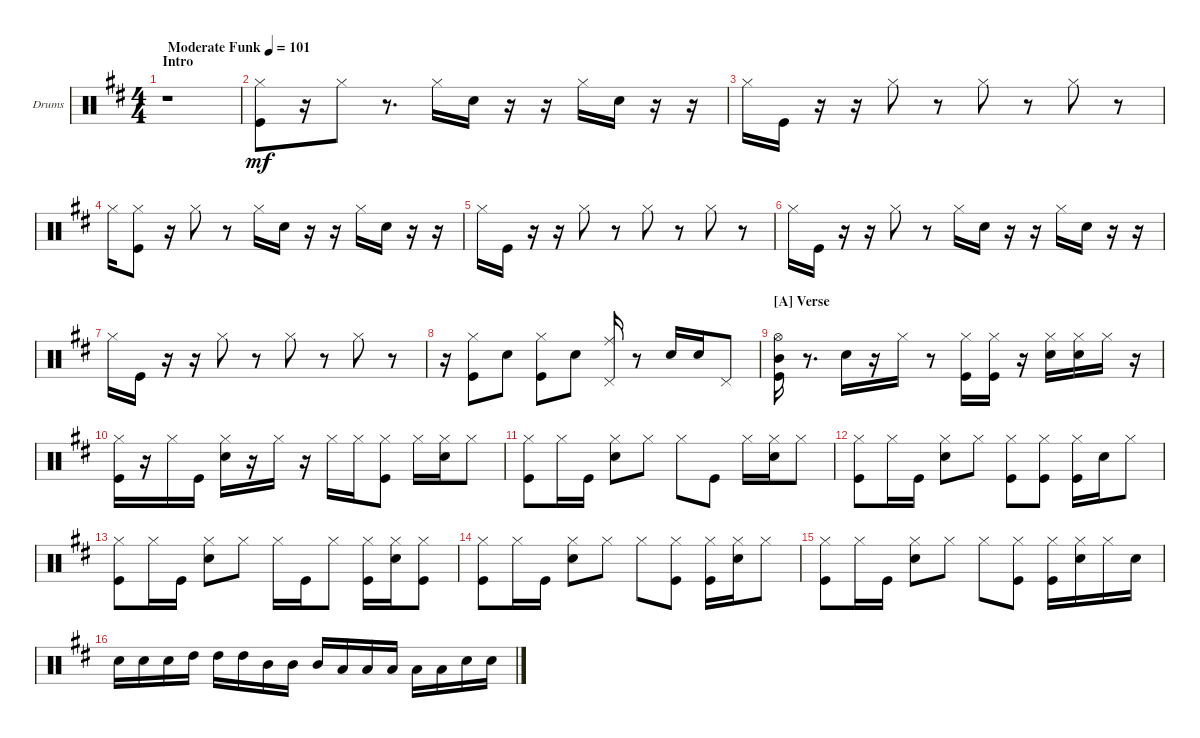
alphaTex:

\bracketExtendMode groupsimilarinstruments
\firstSystemTrackNameOrientation horizontal
\otherSystemsTrackNameOrientation horizontal
\track ("Drumkit" "Drums") {instrument percussion}
\staff {score}
\articulation defaults
\ts (4 4)
\beaming (8 2 2 2 2)
\section ("" "Intro")
\tempo (101 "Moderate Funk")
\clef neutral
\scale
0.514894
\ks d
r.1{dy mf} |
\scale
0.242553 ("Kick (hit)" "Hi-Hat (closed)").8 r.16 "Hi-Hat (closed)".8 r.8{d} "Hi-Hat (closed)".16 "Snare (hit) 2".16 r.16 r.16 "Hi-Hat (closed)".16 "Snare (hit) 2".16 r.16 r.16 |
\scale
0.242553 "Hi-Hat (closed)".16 "Kick (hit)".16 r.16 r.16 "Hi-Hat (closed)".8 r.8 "Hi-Hat (closed)".8 r.8 "Hi-Hat (closed)".8 r.8 |
\scale
0.333333 "Hi-Hat (closed)".16 ("Kick (hit)" "Hi-Hat (closed)").8 r.16 "Hi-Hat (closed)".8 r.8 "Hi-Hat (closed)".16 "Snare (hit) 2".16 r.16 r.16 "Hi-Hat (closed)".16 "Snare (hit) 2".16 r.16 r.16 |
\scale
0.333333 "Hi-Hat (closed)".16 "Kick (hit)".16 r.16 r.16 "Hi-Hat (closed)".8 r.8 "Hi-Hat (closed)".8 r.8 "Hi-Hat (closed)".8 r.8 |
\scale
0.333333 "Hi-Hat (closed)".16 "Kick (hit)".16 r.16 r.16 "Hi-Hat (closed)".8 r.8 "Hi-Hat (closed)".16 "Snare (hit) 2".16 r.16 r.16 "Hi-Hat (closed)".16 "Snare (hit) 2".16 r.16 r.16 |
\scale
0.333333 "Hi-Hat (closed)".16 "Kick (hit)".16 r.16 r.16 "Hi-Hat (closed)".8 r.8 "Hi-Hat (closed)".8 r.8 "Hi-Hat (closed)".8 r.8 |
\scale
0.333333 r.16 ("Kick (hit)" "Hi-Hat (closed)").8 "Snare (hit) 2".8 ("Kick (hit)" "Hi-Hat (closed)").8 "Snare (hit) 2".8 ("Ride (middle)" "Pedal Hi-Hat (hit)").16 r.8 "Snare (hit) 2".16 "Snare (hit) 2".16 "Pedal Hi-Hat (hit)".8 |
\section ("A" "Verse")
\scale
0.333333 ("Kick (hit)" "Mid Tom (hit)" "Hi-Hat (open)").16 r.8{d} "Snare (hit) 2".16 r.16 "Hi-Hat (closed)".16 r.8 ("Kick (hit)" "Hi-Hat (closed)").16 ("Kick (hit)" "Hi-Hat (closed)").16 r.16 ("Snare (hit) 2" "Hi-Hat (closed)").16 ("Snare (hit) 2" "Hi-Hat (closed)").16 "Hi-Hat (closed)".16 r.16 |
\scale
0.333333 ("Kick (hit)" "Hi-Hat (closed)").16 r.16 "Hi-Hat (closed)".16 "Kick (hit)".16 ("Snare (hit) 2" "Hi-Hat (closed)").16 r.16 "Hi-Hat (closed)".16 r.16 "Hi-Hat (closed)".16 "Hi-Hat (closed)".16 ("Kick (hit)" "Hi-Hat (closed)").8 "Hi-Hat (closed)".16 ("Snare (hit) 2" "Hi-Hat (closed)").16 "Hi-Hat (closed)".8 |
\scale
0.333333 ("Kick (hit)" "Hi-Hat (closed)").8 "Hi-Hat (closed)".16 "Kick (hit)".16 ("Snare (hit) 2" "Hi-Hat (closed)").8 "Hi-Hat (closed)".8 "Hi-Hat (closed)".8 "Kick (hit)".8 "Hi-Hat (closed)".16 ("Snare (hit) 2" "Hi-Hat (closed)").16 "Hi-Hat (closed)".8 |
\scale
0.333333 ("Kick (hit)" "Hi-Hat (closed)").8 "Hi-Hat (closed)".16 "Kick (hit)".16 ("Snare (hit) 2" "Hi-Hat (closed)").8 "Hi-Hat (closed)".8 ("Kick (hit)" "Hi-Hat (closed)").8 ("Kick (hit)" "Hi-Hat (closed)").8 ("Kick (hit)" "Hi-Hat (closed)").16 "Snare (hit) 2".16 "Hi-Hat (closed)".8 |
\scale
0.333333 ("Kick (hit)" "Hi-Hat (closed)").8 "Hi-Hat (closed)".16 "Kick (hit)".16 ("Snare (hit) 2" "Hi-Hat (closed)").8 "Hi-Hat (closed)".8 "Hi-Hat (closed)".16 "Kick (hit)".16 "Hi-Hat (closed)".8 ("Kick (hit)" "Hi-Hat (closed)").16 ("Snare (hit) 2" "Hi-Hat (closed)").16 ("Kick (hit)" "Hi-Hat (closed)").8 |
\scale
0.333333 ("Kick (hit)" "Hi-Hat (closed)").8 "Hi-Hat (closed)".16 "Kick (hit)".16 ("Snare (hit) 2" "Hi-Hat (closed)").8 "Hi-Hat (closed)".8 "Hi-Hat (closed)".8 ("Kick (hit)" "Hi-Hat (closed)").8 ("Kick (hit)" "Hi-Hat (closed)").16 ("Snare (hit) 2" "Hi-Hat (closed)").16 "Hi-Hat (closed)".8 |
\scale
0.333333 ("Kick (hit)" "Hi-Hat (closed)").8 "Hi-Hat (closed)".16 "Kick (hit)".16 ("Snare (hit) 2" "Hi-Hat (closed)").8 "Hi-Hat (closed)".8 "Hi-Hat (closed)".8 ("Kick (hit)" "Hi-Hat (closed)").8 ("Kick (hit)" "Hi-Hat (closed)").16 ("Snare (hit) 2" "Hi-Hat (closed)").16 "Hi-Hat (closed)".16 "Snare (hit) 2".16 |
\scale
0.333333 "Snare (hit) 2".16 "Snare (hit) 2".16 "Snare (hit) 2".16 "High Tom (hit)".16 "High Tom (hit)".16 "High Tom (hit)".16 "Mid Tom (hit)".16 "Mid Tom (hit)".16 "Mid Tom (hit)".16 "Low Tom (hit)".16 "Low Tom (hit)".16 "Low Tom (hit)".16 "Low Tom (hit)".16 "Low Tom (hit)".16 "Snare (hit) 2".16 "Snare (hit) 2".16
